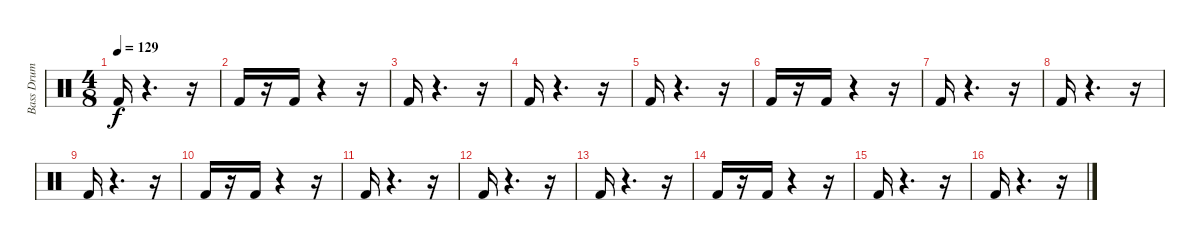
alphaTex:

\track ("Bass Drum" "Bass Drum") {instrument percussion}
\staff {score}
\articulation defaults
\ts (4 8)
\tempo 129
\clef neutral
\ks c "Kick (hit) 2".16{dy f}
r.4{d} r.16 |
"Kick (hit) 2".16 r.16 "Kick (hit) 2".16 r.4 r.16 |
"Kick (hit) 2".16 r.4{d} r.16 |
"Kick (hit) 2".16 r.4{d} r.16 |
"Kick (hit) 2".16 r.4{d} r.16 |
"Kick (hit) 2".16 r.16 "Kick (hit) 2".16 r.4 r.16 |
"Kick (hit) 2".16 r.4{d} r.16 |
"Kick (hit) 2".16 r.4{d} r.16 |
"Kick (hit) 2".16 r.4{d} r.16 |
"Kick (hit) 2".16 r.16 "Kick (hit) 2".16 r.4 r.16 |
"Kick (hit) 2".16 r.4{d} r.16 |
"Kick (hit) 2".16 r.4{d} r.16 |
"Kick (hit) 2".16 r.4{d} r.16 |
"Kick (hit) 2".16 r.16 "Kick (hit) 2".16 r.4 r.16 |
"Kick (hit) 2".16 r.4{d} r.16 |
"Kick (hit) 2".16 r.4{d} r.16
